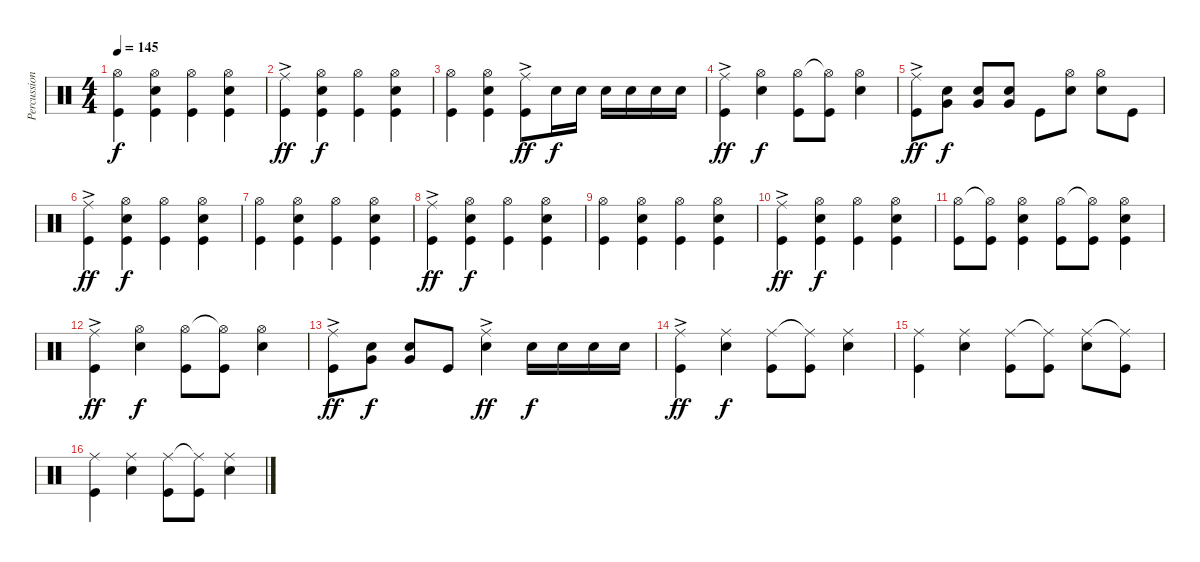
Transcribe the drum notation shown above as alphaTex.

\track ("Percussion" "Percussion") {instrument percussion}
\staff {score}
\articulation defaults
\ts (4 4)
\tempo 145
\clef neutral
\ks c
("Hi-Hat (open)" "Kick (hit)").4{dy f} ("Hi-Hat (open)" "Snare (hit) 2" "Kick (hit)").4 ("Hi-Hat (open)" "Kick (hit)").4 ("Hi-Hat (open)" "Snare (hit) 2" "Kick (hit)").4 |
("Ride (middle)"{ac} "Kick (hit)").4{dy ff} ("Hi-Hat (open)" "Snare (hit) 2" "Kick (hit)").4{dy f} ("Hi-Hat (open)" "Kick (hit)").4 ("Hi-Hat (open)" "Snare (hit) 2" "Kick (hit)").4 |
("Hi-Hat (open)" "Kick (hit)").4 ("Hi-Hat (open)" "Snare (hit) 2" "Kick (hit)").4 ("Ride (middle)"{ac} "Kick (hit)").8{dy ff} "Snare (hit) 2".16{dy f} "Snare (hit) 2".16 "Snare (hit) 2".16 "Snare (hit) 2".16 "Snare (hit) 2".16 "Snare (hit) 2".16 |
("Ride (middle)"{ac} "Kick (hit)").4{dy ff} ("Hi-Hat (open)" "Snare (hit) 2").4{dy f} ("Hi-Hat (open)" "Kick (hit)").8 ("Hi-Hat (open)"{t} "Kick (hit)").8 ("Hi-Hat (open)" "Snare (hit) 2").4 |
("Ride (middle)"{ac} "Kick (hit)").8{dy ff} ("Snare (hit) 2" "Very Low Tom (hit)").8{dy f} ("Snare (hit) 2" "Very Low Tom (hit)").8 ("Snare (hit) 2" "Very Low Tom (hit)").8 "Kick (hit)".8 ("Hi-Hat (open)" "Snare (hit) 2").8 ("Hi-Hat (open)" "Snare (hit) 2").8 "Kick (hit)".8 |
("Ride (middle)"{ac} "Kick (hit)").4{dy ff} ("Hi-Hat (open)" "Snare (hit) 2" "Kick (hit)").4{dy f} ("Hi-Hat (open)" "Kick (hit)").4 ("Hi-Hat (open)" "Snare (hit) 2" "Kick (hit)").4 |
("Hi-Hat (open)" "Kick (hit)").4 ("Hi-Hat (open)" "Snare (hit) 2" "Kick (hit)").4 ("Hi-Hat (open)" "Kick (hit)").4 ("Hi-Hat (open)" "Snare (hit) 2" "Kick (hit)").4 |
("Ride (middle)"{ac} "Kick (hit)").4{dy ff} ("Hi-Hat (open)" "Snare (hit) 2" "Kick (hit)").4{dy f} ("Hi-Hat (open)" "Kick (hit)").4 ("Hi-Hat (open)" "Snare (hit) 2" "Kick (hit)").4 |
("Hi-Hat (open)" "Kick (hit)").4 ("Hi-Hat (open)" "Snare (hit) 2" "Kick (hit)").4 ("Hi-Hat (open)" "Kick (hit)").4 ("Hi-Hat (open)" "Snare (hit) 2" "Kick (hit)").4 |
("Ride (middle)"{ac} "Kick (hit)").4{dy ff} ("Hi-Hat (open)" "Snare (hit) 2" "Kick (hit)").4{dy f} ("Hi-Hat (open)" "Kick (hit)").4 ("Hi-Hat (open)" "Snare (hit) 2" "Kick (hit)").4 |
("Hi-Hat (open)" "Kick (hit)").8 ("Hi-Hat (open)"{t} "Kick (hit)").8 ("Hi-Hat (open)" "Snare (hit) 2" "Kick (hit)").4 ("Hi-Hat (open)" "Kick (hit)").8 ("Hi-Hat (open)"{t} "Kick (hit)").8 ("Hi-Hat (open)" "Snare (hit) 2" "Kick (hit)").4 |
("Ride (middle)"{ac} "Kick (hit)").4{dy ff} ("Hi-Hat (open)" "Snare (hit) 2").4{dy f} ("Hi-Hat (open)" "Kick (hit)").8 ("Hi-Hat (open)"{t} "Kick (hit)").8 ("Hi-Hat (open)" "Snare (hit) 2").4 |
("Ride (middle)"{ac} "Kick (hit)").8{dy ff} ("Snare (hit) 2" "Very Low Tom (hit)").8{dy f} ("Snare (hit) 2" "Very Low Tom (hit)").8 "Kick (hit)".8 ("Ride (middle)"{ac} "Snare (hit) 2").4{dy ff} "Snare (hit) 2".16{dy f} "Snare (hit) 2".16 "Snare (hit) 2".16 "Snare (hit) 2".16 |
("Ride (middle)"{ac} "Kick (hit)").4{dy ff} ("Ride (middle)" "Snare (hit) 2").4{dy f} ("Ride (middle)" "Kick (hit)").8 ("Ride (middle)"{t} "Kick (hit)").8 ("Ride (middle)" "Snare (hit) 2").4 |
("Ride (middle)" "Kick (hit)").4 ("Ride (middle)" "Snare (hit) 2").4 ("Ride (middle)" "Kick (hit)").8 ("Ride (middle)"{t} "Kick (hit)").8 ("Ride (middle)" "Snare (hit) 2").8 ("Ride (middle)"{t} "Kick (hit)").8 |
("Ride (middle)" "Kick (hit)").4 ("Ride (middle)" "Snare (hit) 2").4 ("Ride (middle)" "Kick (hit)").8 ("Ride (middle)"{t} "Kick (hit)").8 ("Ride (middle)" "Snare (hit) 2").4
